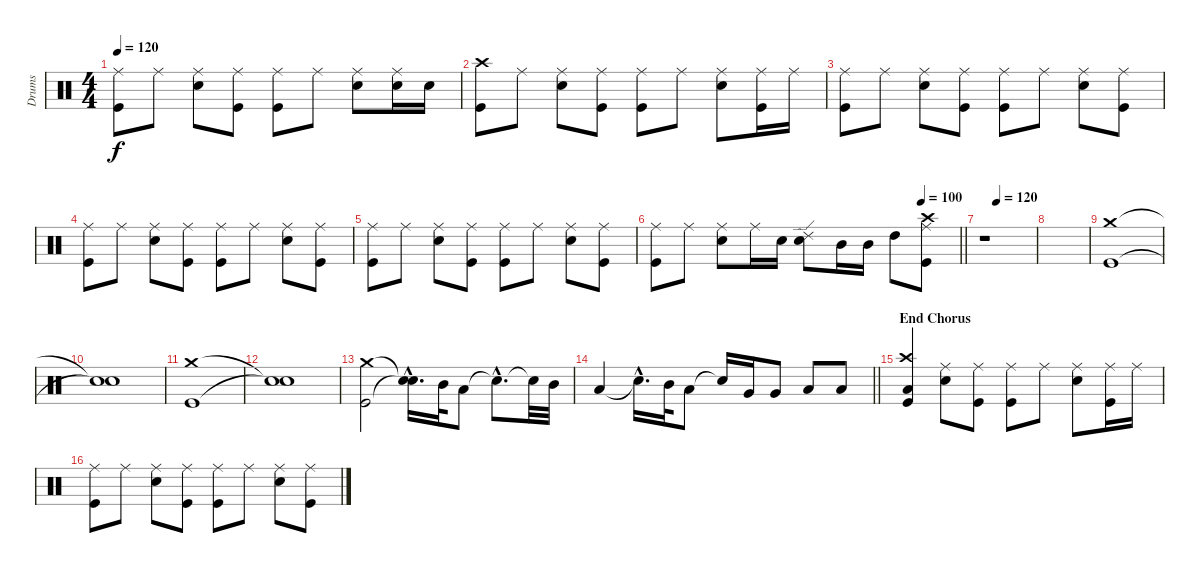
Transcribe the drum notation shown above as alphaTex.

\track ("Drums" "Drums") {instrument percussion}
\staff {score}
\articulation defaults
\ts (4 4)
\tempo 120
\clef neutral
\ks c
("Ride (middle)" "Kick (hit)").8{dy f} "Ride (middle)".8 ("Ride (middle)" "Snare (hit) 2").8 ("Ride (middle)" "Kick (hit)").8 ("Ride (middle)" "Kick (hit)").8 "Ride (middle)".8 ("Ride (middle)" "Snare (hit) 2").8 ("Ride (middle)" "Snare (hit) 2").16 "Snare (hit) 2".16 |
("Crash high (hit)" "Kick (hit)").8 "Ride (middle)".8 ("Ride (middle)" "Snare (hit) 2").8 ("Ride (middle)" "Kick (hit)").8 ("Ride (middle)" "Kick (hit)").8 "Ride (middle)".8 ("Ride (middle)" "Snare (hit) 2").8 ("Ride (middle)" "Kick (hit)").16 "Ride (middle)".16 |
("Ride (middle)" "Kick (hit)").8 "Ride (middle)".8 ("Ride (middle)" "Snare (hit) 2").8 ("Ride (middle)" "Kick (hit)").8 ("Ride (middle)" "Kick (hit)").8 "Ride (middle)".8 ("Ride (middle)" "Snare (hit) 2").8 ("Ride (middle)" "Kick (hit)").8 |
("Ride (middle)" "Kick (hit)").8 "Ride (middle)".8 ("Ride (middle)" "Snare (hit) 2").8 ("Ride (middle)" "Kick (hit)").8 ("Ride (middle)" "Kick (hit)").8 "Ride (middle)".8 ("Ride (middle)" "Snare (hit) 2").8 ("Ride (middle)" "Kick (hit)").8 |
("Ride (middle)" "Kick (hit)").8 "Ride (middle)".8 ("Ride (middle)" "Snare (hit) 2").8 ("Ride (middle)" "Kick (hit)").8 ("Ride (middle)" "Kick (hit)").8 "Ride (middle)".8 ("Ride (middle)" "Snare (hit) 2").8 ("Ride (middle)" "Kick (hit)").8 |
\tempo (80 0.875)
\tempo (100 0.875)
\barLineRight lightlight
("Ride (middle)" "Kick (hit)").8 "Ride (middle)".8 ("Ride (middle)" "Snare (hit) 2").8 "Ride (middle)".16 "Snare (hit) 2".16 ("Ride (edge) 2" "Snare (hit) 2").8 "Mid Tom (hit)".16 "Mid Tom (hit)".16 "High Tom (hit)".8 ("Crash high (hit)" "Ride (middle)" "Kick (hit)").8 |
\tempo (120 0.25)
r.1 |
|
("Crash medium (hit)" "Kick (hit)").1 |
("Snare (hit)"{t} "Snare (hit)"{t}).1 |
("Crash medium (hit)" "Kick (hit)").1 |
("Snare (hit)"{t} "Snare (hit)"{t}).1 |
("Crash medium (hit)" "Kick (hit)").2 ("Snare (hit)"{hac t} "Snare (hit)"{hac t}).16{d} "Mid Tom (hit)".32 "Low Tom (hit)".8 "Snare (hit)"{hac t}.8{d} "Snare (hit)"{t}.32 "Mid Tom (hit)".32 |
\barLineRight lightlight "Low Tom (hit)".4 "Snare (hit)"{hac t}.16{d} "Mid Tom (hit)".32 "Low Tom (hit)".8 "Snare (hit)"{t}.16 "Very Low Tom (hit)".16 "Very Low Tom (hit)".8 "Low Floor Tom (hit)".8 "Low Floor Tom (hit)".8
|
\section ("" "End Chorus")
("Crash high (hit)" "Low Floor Tom (hit)" "Kick (hit)").4 ("Ride (middle)" "Snare (hit) 2").8 ("Ride (middle)" "Kick (hit)").8 ("Ride (middle)" "Kick (hit)").8 "Ride (middle)".8 ("Ride (middle)" "Snare (hit) 2").8 ("Ride (middle)" "Kick (hit)").16 "Ride (middle)".16 |
("Ride (middle)" "Kick (hit)").8 "Ride (middle)".8 ("Ride (middle)" "Snare (hit) 2").8 ("Ride (middle)" "Kick (hit)").8 ("Ride (middle)" "Kick (hit)").8 "Ride (middle)".8 ("Ride (middle)" "Snare (hit) 2").8 ("Ride (middle)" "Kick (hit)").8
